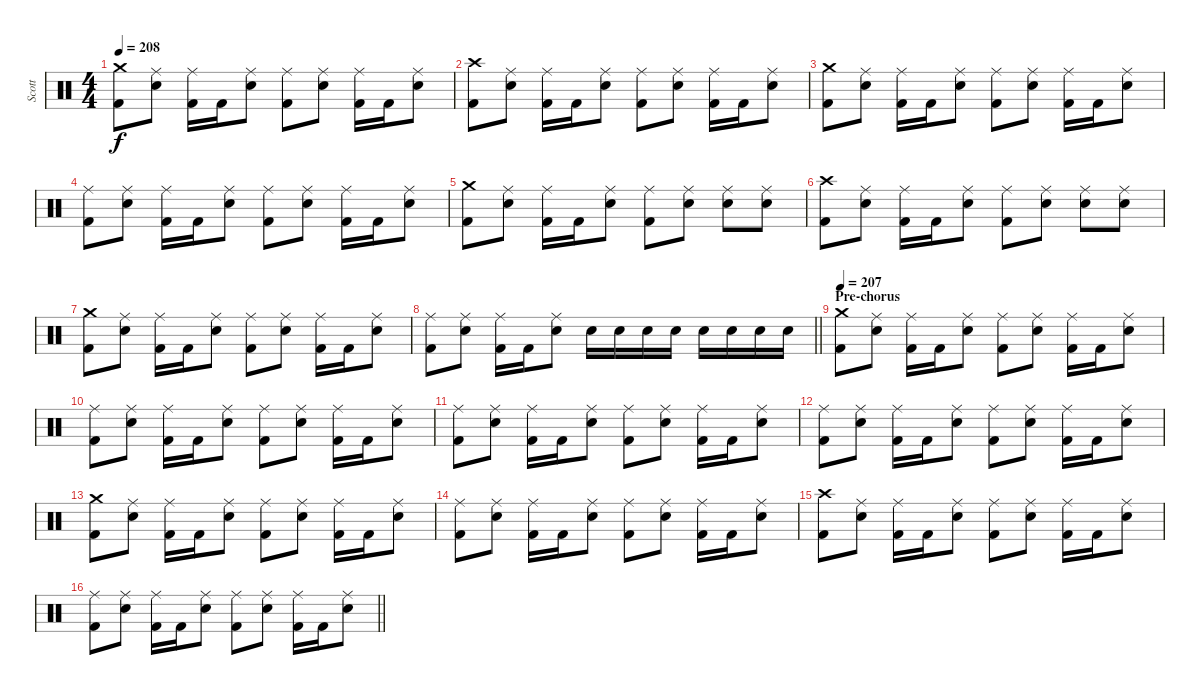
\track ("Scott" "Scott") {instrument percussion}
\staff {score}
\articulation defaults
\ts (4 4)
\tempo 208
\clef neutral
\ks c
("Crash medium (hit)" "Kick (hit) 2").8{dy f} ("Ride (middle)" "Electric Snare (hit)").8 ("Ride (middle)" "Kick (hit) 2").16 "Kick (hit) 2".16 ("Ride (middle)" "Electric Snare (hit)").8 ("Ride (middle)" "Kick (hit) 2").8 ("Ride (middle)" "Electric Snare (hit)").8 ("Ride (middle)" "Kick (hit) 2").16 "Kick (hit) 2".16 ("Ride (middle)" "Electric Snare (hit)").8 |
("Crash high (hit)" "Kick (hit) 2").8 ("Ride (middle)" "Electric Snare (hit)").8 ("Ride (middle)" "Kick (hit) 2").16 "Kick (hit) 2".16 ("Ride (middle)" "Electric Snare (hit)").8 ("Ride (middle)" "Kick (hit) 2").8 ("Ride (middle)" "Electric Snare (hit)").8 ("Ride (middle)" "Kick (hit) 2").16 "Kick (hit) 2".16 ("Ride (middle)" "Electric Snare (hit)").8 |
("Crash medium (hit)" "Kick (hit) 2").8 ("Ride (middle)" "Electric Snare (hit)").8 ("Ride (middle)" "Kick (hit) 2").16 "Kick (hit) 2".16 ("Ride (middle)" "Electric Snare (hit)").8 ("Ride (middle)" "Kick (hit) 2").8 ("Ride (middle)" "Electric Snare (hit)").8 ("Ride (middle)" "Kick (hit) 2").16 "Kick (hit) 2".16 ("Ride (middle)" "Electric Snare (hit)").8 |
("Ride (middle)" "Kick (hit) 2").8 ("Ride (middle)" "Electric Snare (hit)").8 ("Ride (middle)" "Kick (hit) 2").16 "Kick (hit) 2".16 ("Ride (middle)" "Electric Snare (hit)").8 ("Ride (middle)" "Kick (hit) 2").8 ("Ride (middle)" "Electric Snare (hit)").8 ("Ride (middle)" "Kick (hit) 2").16 "Kick (hit) 2".16 ("Ride (middle)" "Electric Snare (hit)").8 |
("Crash medium (hit)" "Kick (hit) 2").8 ("Ride (middle)" "Electric Snare (hit)").8 ("Ride (middle)" "Kick (hit) 2").16 "Kick (hit) 2".16 ("Ride (middle)" "Electric Snare (hit)").8 ("Ride (middle)" "Kick (hit) 2").8 ("Ride (middle)" "Electric Snare (hit)").8 ("Ride (middle)" "Electric Snare (hit)").8 ("Ride (middle)" "Electric Snare (hit)").8 |
("Crash high (hit)" "Kick (hit) 2").8 ("Ride (middle)" "Electric Snare (hit)").8 ("Ride (middle)" "Kick (hit) 2").16 "Kick (hit) 2".16 ("Ride (middle)" "Electric Snare (hit)").8 ("Ride (middle)" "Kick (hit) 2").8 ("Ride (middle)" "Electric Snare (hit)").8 ("Ride (middle)" "Electric Snare (hit)").8 ("Ride (middle)" "Electric Snare (hit)").8 |
("Crash medium (hit)" "Kick (hit) 2").8 ("Ride (middle)" "Electric Snare (hit)").8 ("Ride (middle)" "Kick (hit) 2").16 "Kick (hit) 2".16 ("Ride (middle)" "Electric Snare (hit)").8 ("Ride (middle)" "Kick (hit) 2").8 ("Ride (middle)" "Electric Snare (hit)").8 ("Ride (middle)" "Kick (hit) 2").16 "Kick (hit) 2".16 ("Ride (middle)" "Electric Snare (hit)").8 |
\barLineRight lightlight
("Ride (middle)" "Kick (hit) 2").8 ("Ride (middle)" "Electric Snare (hit)").8 ("Ride (middle)" "Kick (hit) 2").16 "Kick (hit) 2".16 ("Ride (middle)" "Electric Snare (hit)").8 "Electric Snare (hit)".16 "Electric Snare (hit)".16 "Electric Snare (hit)".16 "Electric Snare (hit)".16 "Electric Snare (hit)".16 "Electric Snare (hit)".16 "Electric Snare (hit)".16 "Electric Snare (hit)".16 |
\section ("" "Pre-chorus")
\tempo 207
("Crash medium (hit)" "Kick (hit) 2").8 ("Ride (middle)" "Electric Snare (hit)").8 ("Ride (middle)" "Kick (hit) 2").16 "Kick (hit) 2".16 ("Ride (middle)" "Electric Snare (hit)").8 ("Ride (middle)" "Kick (hit) 2").8 ("Ride (middle)" "Electric Snare (hit)").8 ("Ride (middle)" "Kick (hit) 2").16 "Kick (hit) 2".16 ("Ride (middle)" "Electric Snare (hit)").8 |
("Ride (middle)" "Kick (hit) 2").8 ("Ride (middle)" "Electric Snare (hit)").8 ("Ride (middle)" "Kick (hit) 2").16 "Kick (hit) 2".16 ("Ride (middle)" "Electric Snare (hit)").8 ("Ride (middle)" "Kick (hit) 2").8 ("Ride (middle)" "Electric Snare (hit)").8 ("Ride (middle)" "Kick (hit) 2").16 "Kick (hit) 2".16 ("Ride (middle)" "Electric Snare (hit)").8 |
("Ride (middle)" "Kick (hit) 2").8 ("Ride (middle)" "Electric Snare (hit)").8 ("Ride (middle)" "Kick (hit) 2").16 "Kick (hit) 2".16 ("Ride (middle)" "Electric Snare (hit)").8 ("Ride (middle)" "Kick (hit) 2").8 ("Ride (middle)" "Electric Snare (hit)").8 ("Ride (middle)" "Kick (hit) 2").16 "Kick (hit) 2".16 ("Ride (middle)" "Electric Snare (hit)").8 |
("Ride (middle)" "Kick (hit) 2").8 ("Ride (middle)" "Electric Snare (hit)").8 ("Ride (middle)" "Kick (hit) 2").16 "Kick (hit) 2".16 ("Ride (middle)" "Electric Snare (hit)").8 ("Ride (middle)" "Kick (hit) 2").8 ("Ride (middle)" "Electric Snare (hit)").8 ("Ride (middle)" "Kick (hit) 2").16 "Kick (hit) 2".16 ("Ride (middle)" "Electric Snare (hit)").8 |
("Crash medium (hit)" "Kick (hit) 2").8 ("Ride (middle)" "Electric Snare (hit)").8 ("Ride (middle)" "Kick (hit) 2").16 "Kick (hit) 2".16 ("Ride (middle)" "Electric Snare (hit)").8 ("Ride (middle)" "Kick (hit) 2").8 ("Ride (middle)" "Electric Snare (hit)").8 ("Ride (middle)" "Kick (hit) 2").16 "Kick (hit) 2".16 ("Ride (middle)" "Electric Snare (hit)").8 |
("Ride (middle)" "Kick (hit) 2").8 ("Ride (middle)" "Electric Snare (hit)").8 ("Ride (middle)" "Kick (hit) 2").16 "Kick (hit) 2".16 ("Ride (middle)" "Electric Snare (hit)").8 ("Ride (middle)" "Kick (hit) 2").8 ("Ride (middle)" "Electric Snare (hit)").8 ("Ride (middle)" "Kick (hit) 2").16 "Kick (hit) 2".16 ("Ride (middle)" "Electric Snare (hit)").8 |
("Crash high (hit)" "Kick (hit) 2").8 ("Ride (middle)" "Electric Snare (hit)").8 ("Ride (middle)" "Kick (hit) 2").16 "Kick (hit) 2".16 ("Ride (middle)" "Electric Snare (hit)").8 ("Ride (middle)" "Kick (hit) 2").8 ("Ride (middle)" "Electric Snare (hit)").8 ("Ride (middle)" "Kick (hit) 2").16 "Kick (hit) 2".16 ("Ride (middle)" "Electric Snare (hit)").8 |
\barLineRight lightlight
("Ride (middle)" "Kick (hit) 2").8 ("Ride (middle)" "Electric Snare (hit)").8 ("Ride (middle)" "Kick (hit) 2").16 "Kick (hit) 2".16 ("Ride (middle)" "Electric Snare (hit)").8 ("Ride (middle)" "Kick (hit) 2").8 ("Ride (middle)" "Electric Snare (hit)").8 ("Ride (middle)" "Kick (hit) 2").16 "Kick (hit) 2".16 ("Ride (middle)" "Electric Snare (hit)").8
